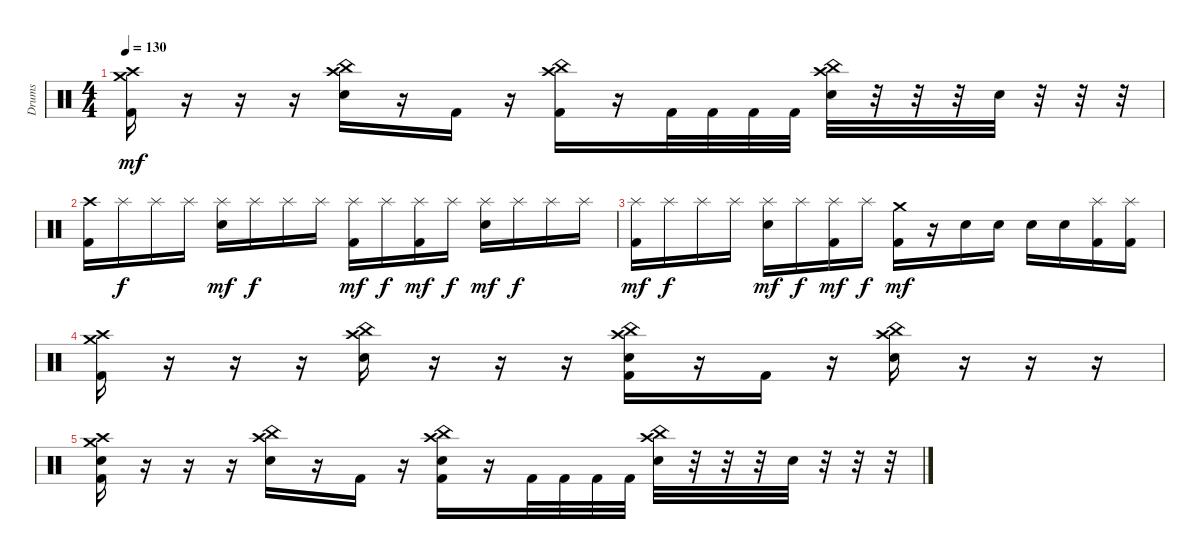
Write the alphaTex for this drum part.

\track ("Drums" "Drums") {instrument percussion}
\staff {score}
\articulation defaults
\ts (4 4)
\tempo 130
\clef neutral
\ks c
("Crash medium (hit)" "Crash high (hit)" "Kick (hit) 2").16{dy mf} r.16 r.16 r.16 ("China (hit)" "Crash high (hit)" "Electric Snare (hit)").16 r.16 "Kick (hit) 2".16 r.16 ("China (hit)" "Crash high (hit)" "Kick (hit) 2").16 r.16 "Kick (hit) 2".32 "Kick (hit) 2".32 "Kick (hit) 2".32 "Kick (hit) 2".32 ("China (hit)" "Crash high (hit)" "Electric Snare (hit)").32 r.32 r.32 r.32 "Electric Snare (hit)".32 r.32 r.32 r.32 |
("Crash high (hit)" "Kick (hit) 2").16 "Splash (hit)".16{dy f} "Splash (hit)".16 "Splash (hit)".16 ("Splash (hit)" "Electric Snare (hit)").16{dy mf} "Splash (hit)".16{dy f} "Splash (hit)".16 "Splash (hit)".16 ("Splash (hit)" "Kick (hit) 2").16{dy mf} "Splash (hit)".16{dy f} ("Splash (hit)" "Kick (hit) 2").16{dy mf} "Splash (hit)".16{dy f} ("Splash (hit)" "Electric Snare (hit)").16{dy mf} "Splash (hit)".16{dy f} "Splash (hit)".16 "Splash (hit)".16 |
("Splash (hit)" "Kick (hit) 2").16{dy mf} "Splash (hit)".16{dy f} "Splash (hit)".16 "Splash (hit)".16 ("Splash (hit)" "Electric Snare (hit)").16{dy mf} "Splash (hit)".16{dy f} ("Splash (hit)" "Kick (hit) 2").16{dy mf} "Splash (hit)".16{dy f} ("Crash medium (hit)" "Kick (hit) 2").16{dy mf} r.16 "Electric Snare (hit)".16 "Electric Snare (hit)".16 "Electric Snare (hit)".16 "Electric Snare (hit)".16 ("Splash (hit)" "Kick (hit) 2").16 ("Splash (hit)" "Kick (hit) 2").16 |
("Crash medium (hit)" "Crash high (hit)" "Kick (hit) 2").16 r.16 r.16 r.16 ("China (hit)" "Crash high (hit)" "Electric Snare (hit)").16 r.16 r.16 r.16 ("China (hit)" "Crash high (hit)" "Electric Snare (hit)" "Kick (hit) 2").16 r.16 "Kick (hit) 2".16 r.16 ("China (hit)" "Crash high (hit)" "Electric Snare (hit)").16 r.16 r.16 r.16 |
("Crash medium (hit)" "Crash high (hit)" "Electric Snare (hit)" "Kick (hit) 2").16 r.16 r.16 r.16 ("China (hit)" "Crash high (hit)" "Electric Snare (hit)").16 r.16 "Kick (hit) 2".16 r.16 ("China (hit)" "Crash high (hit)" "Electric Snare (hit)" "Kick (hit) 2").16 r.16 "Kick (hit) 2".32 "Kick (hit) 2".32 "Kick (hit) 2".32 "Kick (hit) 2".32 ("China (hit)" "Crash high (hit)" "Electric Snare (hit)").32 r.32 r.32 r.32 "Electric Snare (hit)".32 r.32 r.32 r.32
